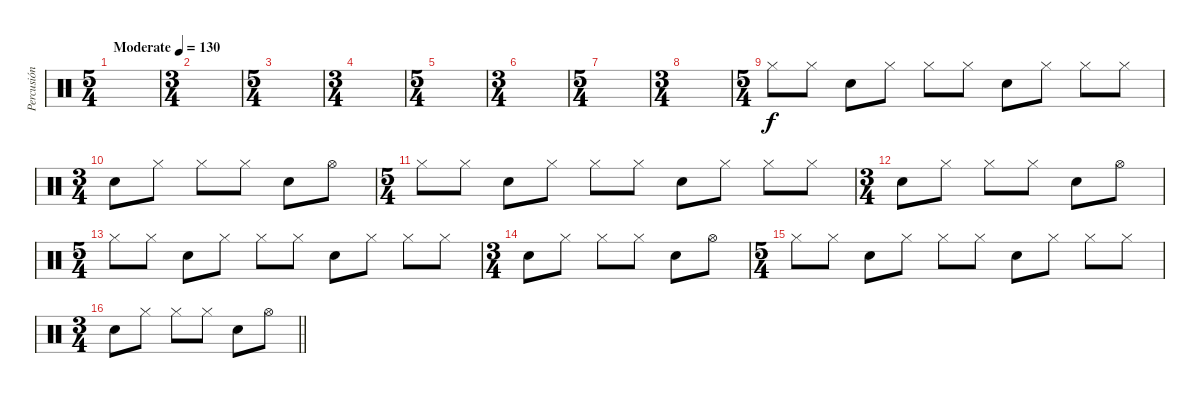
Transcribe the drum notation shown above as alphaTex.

\track ("Percusión" "Percusión") {instrument percussion}
\staff {score}
\articulation defaults
\ts (5 4)
\tempo (130 "Moderate")
\clef neutral
\ks c
|
\ts (3 4)
|
\ts (5 4)
|
\ts (3 4)
|
\ts (5 4)
|
\ts (3 4)
|
\ts (5 4)
|
\ts (3 4)
|
\ts (5 4)
"Hi-Hat (closed)".8 "Hi-Hat (closed)".8 "Snare (hit) 2".8 "Hi-Hat (closed)".8 "Hi-Hat (closed)".8 "Hi-Hat (closed)".8 "Snare (hit) 2".8 "Hi-Hat (closed)".8 "Hi-Hat (closed)".8 "Hi-Hat (closed)".8 |
\ts (3 4)
"Snare (hit) 2".8 "Hi-Hat (closed)".8 "Hi-Hat (closed)".8 "Hi-Hat (closed)".8 "Snare (hit) 2".8 "Hi-Hat (open)".8 |
\ts (5 4)
"Hi-Hat (closed)".8 "Hi-Hat (closed)".8 "Snare (hit) 2".8 "Hi-Hat (closed)".8 "Hi-Hat (closed)".8 "Hi-Hat (closed)".8 "Snare (hit) 2".8 "Hi-Hat (closed)".8 "Hi-Hat (closed)".8 "Hi-Hat (closed)".8 |
\ts (3 4)
"Snare (hit) 2".8 "Hi-Hat (closed)".8 "Hi-Hat (closed)".8 "Hi-Hat (closed)".8 "Snare (hit) 2".8 "Hi-Hat (open)".8 |
\ts (5 4)
"Hi-Hat (closed)".8 "Hi-Hat (closed)".8 "Snare (hit) 2".8 "Hi-Hat (closed)".8 "Hi-Hat (closed)".8 "Hi-Hat (closed)".8 "Snare (hit) 2".8 "Hi-Hat (closed)".8 "Hi-Hat (closed)".8 "Hi-Hat (closed)".8 |
\ts (3 4)
"Snare (hit) 2".8 "Hi-Hat (closed)".8 "Hi-Hat (closed)".8 "Hi-Hat (closed)".8 "Snare (hit) 2".8 "Hi-Hat (open)".8 |
\ts (5 4)
"Hi-Hat (closed)".8 "Hi-Hat (closed)".8 "Snare (hit) 2".8 "Hi-Hat (closed)".8 "Hi-Hat (closed)".8 "Hi-Hat (closed)".8 "Snare (hit) 2".8 "Hi-Hat (closed)".8 "Hi-Hat (closed)".8 "Hi-Hat (closed)".8 |
\ts (3 4)
\barLineRight lightlight "Snare (hit) 2".8 "Hi-Hat (closed)".8 "Hi-Hat (closed)".8 "Hi-Hat (closed)".8 "Snare (hit) 2".8 "Hi-Hat (open)".8
